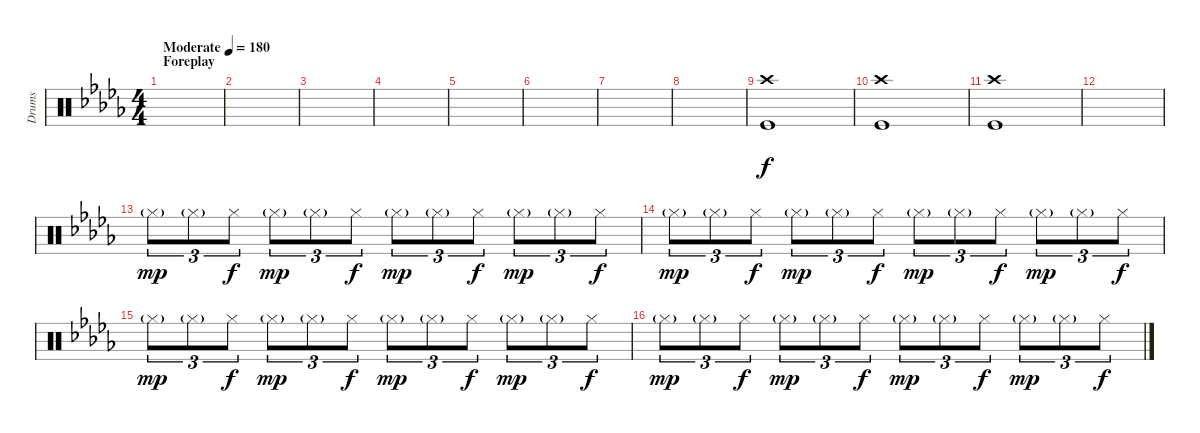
\track ("Drums" "Drums") {instrument percussion}
\staff {score}
\articulation defaults
\ts (4 4)
\section ("" "Foreplay")
\tempo (180 "Moderate")
\clef neutral
\ks db
|
|
|
|
|
|
|
|
("Crash high (hit)" "Kick (hit)").1 |
("Crash high (hit)" "Kick (hit)").1 |
("Crash high (hit)" "Kick (hit)").1 |
|
"Hi-Hat (closed)"{g}.8{tu (3 2) dy mp} "Hi-Hat (closed)"{g}.8{tu (3 2)} "Hi-Hat (closed)".8{tu (3 2) dy f} "Hi-Hat (closed)"{g}.8{tu (3 2) dy mp} "Hi-Hat (closed)"{g}.8{tu (3 2)} "Hi-Hat (closed)".8{tu (3 2) dy f} "Hi-Hat (closed)"{g}.8{tu (3 2) dy mp} "Hi-Hat (closed)"{g}.8{tu (3 2)} "Hi-Hat (closed)".8{tu (3 2) dy f} "Hi-Hat (closed)"{g}.8{tu (3 2) dy mp} "Hi-Hat (closed)"{g}.8{tu (3 2)} "Hi-Hat (closed)".8{tu (3 2) dy f} |
"Hi-Hat (closed)"{g}.8{tu (3 2) dy mp} "Hi-Hat (closed)"{g}.8{tu (3 2)} "Hi-Hat (closed)".8{tu (3 2) dy f} "Hi-Hat (closed)"{g}.8{tu (3 2) dy mp} "Hi-Hat (closed)"{g}.8{tu (3 2)} "Hi-Hat (closed)".8{tu (3 2) dy f} "Hi-Hat (closed)"{g}.8{tu (3 2) dy mp} "Hi-Hat (closed)"{g}.8{tu (3 2)} "Hi-Hat (closed)".8{tu (3 2) dy f} "Hi-Hat (closed)"{g}.8{tu (3 2) dy mp} "Hi-Hat (closed)"{g}.8{tu (3 2)} "Hi-Hat (closed)".8{tu (3 2) dy f} |
"Hi-Hat (closed)"{g}.8{tu (3 2) dy mp} "Hi-Hat (closed)"{g}.8{tu (3 2)} "Hi-Hat (closed)".8{tu (3 2) dy f} "Hi-Hat (closed)"{g}.8{tu (3 2) dy mp} "Hi-Hat (closed)"{g}.8{tu (3 2)} "Hi-Hat (closed)".8{tu (3 2) dy f} "Hi-Hat (closed)"{g}.8{tu (3 2) dy mp} "Hi-Hat (closed)"{g}.8{tu (3 2)} "Hi-Hat (closed)".8{tu (3 2) dy f} "Hi-Hat (closed)"{g}.8{tu (3 2) dy mp} "Hi-Hat (closed)"{g}.8{tu (3 2)} "Hi-Hat (closed)".8{tu (3 2) dy f} |
"Hi-Hat (closed)"{g}.8{tu (3 2) dy mp} "Hi-Hat (closed)"{g}.8{tu (3 2)} "Hi-Hat (closed)".8{tu (3 2) dy f} "Hi-Hat (closed)"{g}.8{tu (3 2) dy mp} "Hi-Hat (closed)"{g}.8{tu (3 2)} "Hi-Hat (closed)".8{tu (3 2) dy f} "Hi-Hat (closed)"{g}.8{tu (3 2) dy mp} "Hi-Hat (closed)"{g}.8{tu (3 2)} "Hi-Hat (closed)".8{tu (3 2) dy f} "Hi-Hat (closed)"{g}.8{tu (3 2) dy mp} "Hi-Hat (closed)"{g}.8{tu (3 2)} "Hi-Hat (closed)".8{tu (3 2) dy f}
